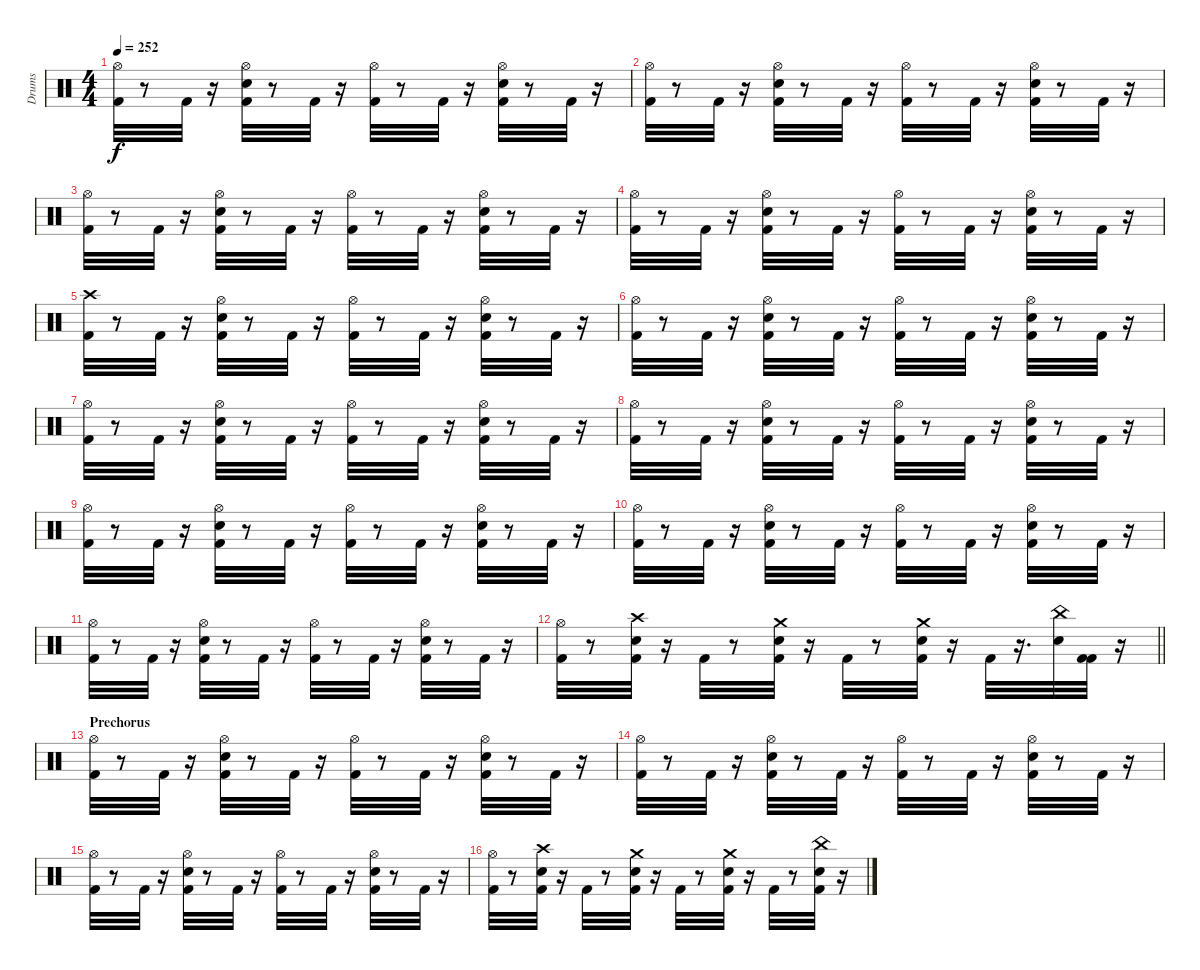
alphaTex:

\track ("Drums" "Drums") {instrument percussion}
\staff {score}
\articulation defaults
\ts (4 4)
\tempo 252
\clef neutral
\ks c
("Hi-Hat (open)" "Kick (hit) 2").32{dy f} r.8 "Kick (hit) 2".32 r.16 ("Kick (hit) 2" "Hi-Hat (open)" "Snare (hit) 2").32 r.8 "Kick (hit) 2".32 r.16 ("Hi-Hat (open)" "Kick (hit) 2").32 r.8 "Kick (hit) 2".32 r.16 ("Kick (hit) 2" "Hi-Hat (open)" "Snare (hit) 2").32 r.8 "Kick (hit) 2".32 r.16 |
("Kick (hit) 2" "Hi-Hat (open)").32 r.8 "Kick (hit) 2".32 r.16 ("Snare (hit) 2" "Hi-Hat (open)" "Kick (hit) 2").32 r.8 "Kick (hit) 2".32 r.16 ("Hi-Hat (open)" "Kick (hit) 2").32 r.8 "Kick (hit) 2".32 r.16 ("Kick (hit) 2" "Snare (hit) 2" "Hi-Hat (open)").32 r.8 "Kick (hit) 2".32 r.16 |
("Kick (hit) 2" "Hi-Hat (open)").32 r.8 "Kick (hit) 2".32 r.16 ("Kick (hit) 2" "Hi-Hat (open)" "Snare (hit) 2").32 r.8 "Kick (hit) 2".32 r.16 ("Kick (hit) 2" "Hi-Hat (open)").32 r.8 "Kick (hit) 2".32 r.16 ("Snare (hit) 2" "Hi-Hat (open)" "Kick (hit) 2").32 r.8 "Kick (hit) 2".32 r.16 |
("Kick (hit) 2" "Hi-Hat (open)").32 r.8 "Kick (hit) 2".32 r.16 ("Snare (hit) 2" "Hi-Hat (open)" "Kick (hit) 2").32 r.8 "Kick (hit) 2".32 r.16 ("Hi-Hat (open)" "Kick (hit) 2").32 r.8 "Kick (hit) 2".32 r.16 ("Snare (hit) 2" "Hi-Hat (open)" "Kick (hit) 2").32 r.8 "Kick (hit) 2".32 r.16 |
("Kick (hit) 2" "Crash high (hit)").32 r.8 "Kick (hit) 2".32 r.16 ("Hi-Hat (open)" "Snare (hit) 2" "Kick (hit) 2").32 r.8 "Kick (hit) 2".32 r.16 ("Kick (hit) 2" "Hi-Hat (open)").32 r.8 "Kick (hit) 2".32 r.16 ("Snare (hit) 2" "Kick (hit) 2" "Hi-Hat (open)").32 r.8 "Kick (hit) 2".32 r.16 |
("Kick (hit) 2" "Hi-Hat (open)").32 r.8 "Kick (hit) 2".32 r.16 ("Snare (hit) 2" "Hi-Hat (open)" "Kick (hit) 2").32 r.8 "Kick (hit) 2".32 r.16 ("Kick (hit) 2" "Hi-Hat (open)").32 r.8 "Kick (hit) 2".32 r.16 ("Kick (hit) 2" "Hi-Hat (open)" "Snare (hit) 2").32 r.8 "Kick (hit) 2".32 r.16 |
("Hi-Hat (open)" "Kick (hit) 2").32 r.8 "Kick (hit) 2".32 r.16 ("Hi-Hat (open)" "Snare (hit) 2" "Kick (hit) 2").32 r.8 "Kick (hit) 2".32 r.16 ("Hi-Hat (open)" "Kick (hit) 2").32 r.8 "Kick (hit) 2".32 r.16 ("Hi-Hat (open)" "Snare (hit) 2" "Kick (hit) 2").32 r.8 "Kick (hit) 2".32 r.16 |
("Hi-Hat (open)" "Kick (hit) 2").32 r.8 "Kick (hit) 2".32 r.16 ("Hi-Hat (open)" "Snare (hit) 2" "Kick (hit) 2").32 r.8 "Kick (hit) 2".32 r.16 ("Hi-Hat (open)" "Kick (hit) 2").32 r.8 "Kick (hit) 2".32 r.16 ("Hi-Hat (open)" "Snare (hit) 2" "Kick (hit) 2").32 r.8 "Kick (hit) 2".32 r.16 |
("Hi-Hat (open)" "Kick (hit) 2").32 r.8 "Kick (hit) 2".32 r.16 ("Hi-Hat (open)" "Snare (hit) 2" "Kick (hit) 2").32 r.8 "Kick (hit) 2".32 r.16 ("Hi-Hat (open)" "Kick (hit) 2").32 r.8 "Kick (hit) 2".32 r.16 ("Snare (hit) 2" "Kick (hit) 2" "Hi-Hat (open)").32 r.8 "Kick (hit) 2".32 r.16 |
("Hi-Hat (open)" "Kick (hit) 2").32 r.8 "Kick (hit) 2".32 r.16 ("Kick (hit) 2" "Hi-Hat (open)" "Snare (hit) 2").32 r.8 "Kick (hit) 2".32 r.16 ("Hi-Hat (open)" "Kick (hit) 2").32 r.8 "Kick (hit) 2".32 r.16 ("Snare (hit) 2" "Hi-Hat (open)" "Kick (hit) 2").32 r.8 "Kick (hit) 2".32 r.16 |
("Hi-Hat (open)" "Kick (hit) 2").32 r.8 "Kick (hit) 2".32 r.16 ("Hi-Hat (open)" "Kick (hit) 2" "Snare (hit) 2").32 r.8 "Kick (hit) 2".32 r.16 ("Kick (hit) 2" "Hi-Hat (open)").32 r.8 "Kick (hit) 2".32 r.16 ("Hi-Hat (open)" "Kick (hit) 2" "Snare (hit) 2").32 r.8 "Kick (hit) 2".32 r.16 |
\barLineRight lightlight
("Kick (hit) 2" "Hi-Hat (open)").32 r.8 ("Kick (hit) 2" "Crash high (hit)" "Snare (hit) 2").32 r.16 "Kick (hit) 2".32 r.8 ("Kick (hit) 2" "Crash medium (hit)" "Snare (hit) 2").32 r.16 "Kick (hit) 2".32 r.8 ("Snare (hit) 2" "Kick (hit) 2" "Crash medium (hit)").32 r.16 "Kick (hit) 2".32 r.16{d} ("Snare (hit) 2" "China (hit)").32 ("Kick (hit) 2" "Kick (hit) 2").32 r.16 |
\section ("" "Prechorus")
("Hi-Hat (open)" "Kick (hit) 2").32 r.8 "Kick (hit) 2".32 r.16 ("Snare (hit) 2" "Kick (hit) 2" "Hi-Hat (open)").32 r.8 "Kick (hit) 2".32 r.16 ("Hi-Hat (open)" "Kick (hit) 2").32 r.8 "Kick (hit) 2".32 r.16 ("Snare (hit) 2" "Kick (hit) 2" "Hi-Hat (open)").32 r.8 "Kick (hit) 2".32 r.16 |
("Hi-Hat (open)" "Kick (hit) 2").32 r.8 "Kick (hit) 2".32 r.16 ("Hi-Hat (open)" "Kick (hit) 2" "Snare (hit) 2").32 r.8 "Kick (hit) 2".32 r.16 ("Kick (hit) 2" "Hi-Hat (open)").32 r.8 "Kick (hit) 2".32 r.16 ("Snare (hit) 2" "Hi-Hat (open)" "Kick (hit) 2").32 r.8 "Kick (hit) 2".32 r.16 |
("Hi-Hat (open)" "Kick (hit) 2").32 r.8 "Kick (hit) 2".32 r.16 ("Snare (hit) 2" "Kick (hit) 2" "Hi-Hat (open)").32 r.8 "Kick (hit) 2".32 r.16 ("Kick (hit) 2" "Hi-Hat (open)").32 r.8 "Kick (hit) 2".32 r.16 ("Hi-Hat (open)" "Snare (hit) 2" "Kick (hit) 2").32 r.8 "Kick (hit) 2".32 r.16 |
("Hi-Hat (open)" "Kick (hit) 2").32 r.8 ("Snare (hit) 2" "Crash high (hit)" "Kick (hit) 2").32 r.16 "Kick (hit) 2".32 r.8 ("Kick (hit) 2" "Snare (hit) 2" "Crash medium (hit)").32 r.16 "Kick (hit) 2".32 r.8 ("Kick (hit) 2" "Crash medium (hit)" "Snare (hit) 2").32 r.16 "Kick (hit) 2".32 r.8 ("China (hit)" "Kick (hit) 2" "Snare (hit) 2").32 r.16
